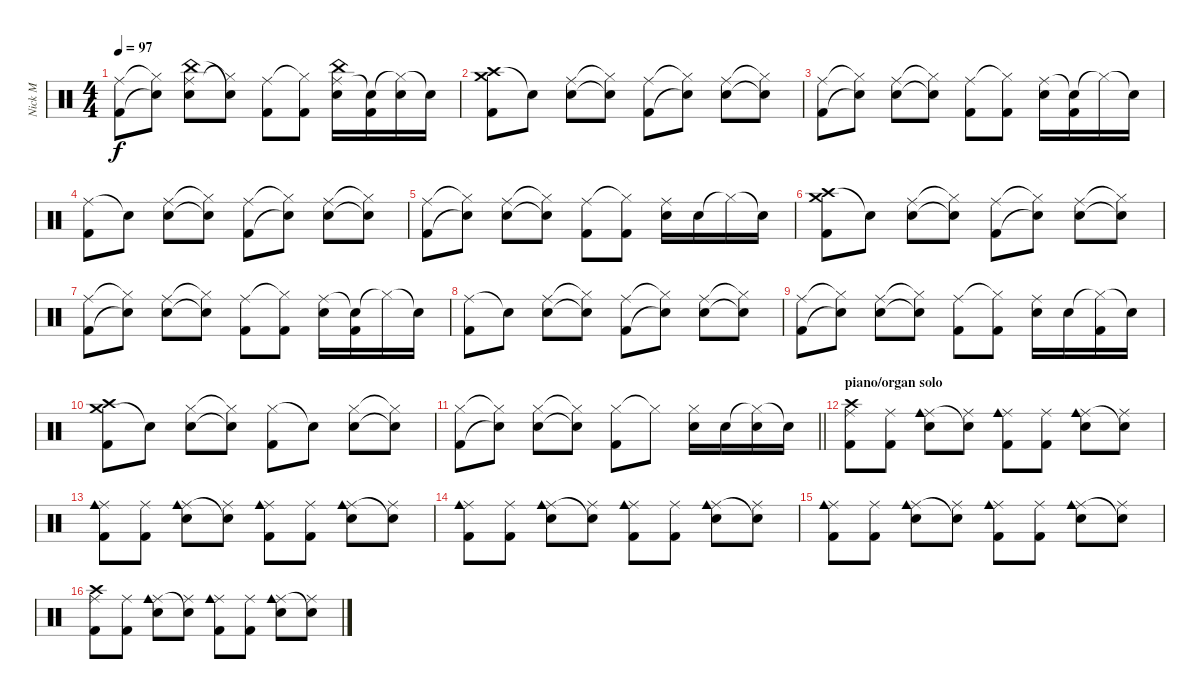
\track ("Nick M" "Nick M") {instrument percussion}
\staff {score}
\articulation defaults
\ts (4 4)
\tempo 97
\clef neutral
\ks c
("Ride (middle)" "Kick (hit) 2").8{dy f} ("Hi-Hat (closed)"{t} "Snare (hit)"{t}).8 ("Ride (middle)" "China (hit)" "Snare (hit) 2").8 ("Hi-Hat (closed)"{t} "Snare (hit)"{t}).8 ("Ride (middle)" "Kick (hit) 2").8 ("Hi-Hat (closed)"{t} "Kick (hit) 2").8 ("Ride (middle)" "China (hit)" "Snare (hit) 2").16 ("Snare (hit)"{t} "Kick (hit) 2").16 ("Hi-Hat (closed)"{t} "Snare (hit) 2").16 "Snare (hit)"{t}.16 |
("Crash high (hit)" "Crash medium (hit)" "Kick (hit) 2").8 "Snare (hit)"{t}.8 ("Ride (middle)" "Snare (hit) 2").8 ("Hi-Hat (closed)"{t} "Snare (hit)"{t}).8 ("Ride (middle)" "Kick (hit) 2").8 ("Hi-Hat (closed)"{t} "Snare (hit)"{t}).8 ("Ride (middle)" "Snare (hit) 2").8 ("Hi-Hat (closed)"{t} "Snare (hit)"{t}).8 |
("Ride (middle)" "Kick (hit) 2").8 ("Hi-Hat (closed)"{t} "Snare (hit)"{t}).8 ("Ride (middle)" "Snare (hit) 2").8 ("Hi-Hat (closed)"{t} "Snare (hit)"{t}).8 ("Ride (middle)" "Kick (hit) 2").8 ("Hi-Hat (closed)"{t} "Kick (hit) 2").8 ("Ride (middle)" "Snare (hit) 2").16 ("Snare (hit)"{t} "Kick (hit) 2").16 "Hi-Hat (closed)"{t}.16 "Snare (hit)"{t}.16 |
("Ride (middle)" "Kick (hit) 2").8 "Snare (hit)"{t}.8 ("Ride (middle)" "Snare (hit) 2").8 ("Hi-Hat (closed)"{t} "Snare (hit)"{t}).8 ("Ride (middle)" "Kick (hit) 2").8 ("Hi-Hat (closed)"{t} "Snare (hit)"{t}).8 ("Ride (middle)" "Snare (hit) 2").8 ("Hi-Hat (closed)"{t} "Snare (hit)"{t}).8 |
("Ride (middle)" "Kick (hit) 2").8 ("Hi-Hat (closed)"{t} "Snare (hit)"{t}).8 ("Ride (middle)" "Snare (hit) 2").8 ("Hi-Hat (closed)"{t} "Snare (hit)"{t}).8 ("Ride (middle)" "Kick (hit) 2").8 ("Hi-Hat (closed)"{t} "Kick (hit) 2").8 ("Ride (middle)" "Snare (hit) 2").16 "Snare (hit) 2".16 "Hi-Hat (closed)"{t}.16 "Snare (hit)"{t}.16 |
("Crash high (hit)" "Crash medium (hit)" "Kick (hit) 2").8 "Snare (hit)"{t}.8 ("Ride (middle)" "Snare (hit) 2").8 ("Hi-Hat (closed)"{t} "Snare (hit)"{t}).8 ("Ride (middle)" "Kick (hit) 2").8 ("Hi-Hat (closed)"{t} "Snare (hit)"{t}).8 ("Ride (middle)" "Snare (hit) 2").8 ("Hi-Hat (closed)"{t} "Snare (hit)"{t}).8 |
("Ride (middle)" "Kick (hit) 2").8 ("Hi-Hat (closed)"{t} "Snare (hit)"{t}).8 ("Ride (middle)" "Snare (hit) 2").8 ("Hi-Hat (closed)"{t} "Snare (hit)"{t}).8 ("Ride (middle)" "Kick (hit) 2").8 ("Hi-Hat (closed)"{t} "Kick (hit) 2").8 ("Ride (middle)" "Snare (hit) 2").16 ("Snare (hit)"{t} "Kick (hit) 2").16 "Hi-Hat (closed)"{t}.16 "Snare (hit)"{t}.16 |
("Ride (middle)" "Kick (hit) 2").8 "Snare (hit)"{t}.8 ("Ride (middle)" "Snare (hit) 2").8 ("Hi-Hat (closed)"{t} "Snare (hit)"{t}).8 ("Ride (middle)" "Kick (hit) 2").8 ("Hi-Hat (closed)"{t} "Snare (hit)"{t}).8 ("Ride (middle)" "Snare (hit) 2").8 ("Hi-Hat (closed)"{t} "Snare (hit)"{t}).8 |
("Ride (middle)" "Kick (hit) 2").8 ("Hi-Hat (closed)"{t} "Snare (hit)"{t}).8 ("Ride (middle)" "Snare (hit) 2").8 ("Hi-Hat (closed)"{t} "Snare (hit)"{t}).8 ("Ride (middle)" "Kick (hit) 2").8 ("Hi-Hat (closed)"{t} "Kick (hit) 2").8 ("Ride (middle)" "Snare (hit) 2").16 "Snare (hit) 2".16 ("Hi-Hat (closed)"{t} "Kick (hit) 2").16 "Snare (hit)"{t}.16 |
("Crash medium (hit)" "Crash high (hit)" "Kick (hit) 2").8 "Snare (hit)"{t}.8 ("Hi-Hat (closed)" "Snare (hit) 2").8 ("Hi-Hat (closed)"{t} "Snare (hit)"{t}).8 ("Hi-Hat (closed)" "Kick (hit) 2").8 "Snare (hit)"{t}.8 ("Hi-Hat (closed)" "Snare (hit) 2").8 ("Hi-Hat (closed)"{t} "Snare (hit)"{t}).8 |
\barLineRight lightlight
("Hi-Hat (closed)" "Kick (hit) 2").8 ("Hi-Hat (closed)"{t} "Snare (hit)"{t}).8 ("Hi-Hat (closed)" "Snare (hit) 2").8 ("Hi-Hat (closed)"{t} "Snare (hit)"{t}).8 ("Hi-Hat (closed)" "Kick (hit) 2").8 "Hi-Hat (closed)"{t}.8 ("Hi-Hat (closed)" "Snare (hit) 2").16 "Snare (hit) 2".16 ("Hi-Hat (closed)"{t} "Snare (hit) 2").16 "Snare (hit)"{t}.16 |
\section ("" "piano/organ solo")
("Ride (middle)" "Crash high (hit)" "Kick (hit) 2").8 ("Ride (middle)" "Kick (hit) 2").8 ("Ride (middle)" "Cowbell medium (hit)" "Snare (hit) 2").8 ("Ride (middle)" "Snare (hit)"{t}).8 ("Ride (middle)" "Cowbell medium (hit)" "Kick (hit) 2").8 ("Ride (middle)" "Kick (hit) 2").8 ("Ride (middle)" "Cowbell medium (hit)" "Snare (hit) 2").8 ("Ride (middle)" "Snare (hit)"{t}).8 |
("Ride (middle)" "Cowbell medium (hit)" "Kick (hit) 2").8 ("Ride (middle)" "Kick (hit) 2").8 ("Ride (middle)" "Cowbell medium (hit)" "Snare (hit) 2").8 ("Ride (middle)" "Snare (hit)"{t}).8 ("Ride (middle)" "Cowbell medium (hit)" "Kick (hit) 2").8 ("Ride (middle)" "Kick (hit) 2").8 ("Ride (middle)" "Cowbell medium (hit)" "Snare (hit) 2").8 ("Ride (middle)" "Snare (hit)"{t}).8 |
("Ride (middle)" "Cowbell medium (hit)" "Kick (hit) 2").8 ("Ride (middle)" "Kick (hit) 2").8 ("Ride (middle)" "Cowbell medium (hit)" "Snare (hit) 2").8 ("Ride (middle)" "Snare (hit)"{t}).8 ("Ride (middle)" "Cowbell medium (hit)" "Kick (hit) 2").8 ("Ride (middle)" "Kick (hit) 2").8 ("Ride (middle)" "Cowbell medium (hit)" "Snare (hit) 2").8 ("Ride (middle)" "Snare (hit)"{t}).8 |
("Ride (middle)" "Cowbell medium (hit)" "Kick (hit) 2").8 ("Ride (middle)" "Kick (hit) 2").8 ("Ride (middle)" "Cowbell medium (hit)" "Snare (hit) 2").8 ("Ride (middle)" "Snare (hit)"{t}).8 ("Ride (middle)" "Cowbell medium (hit)" "Kick (hit) 2").8 ("Ride (middle)" "Kick (hit) 2").8 ("Ride (middle)" "Cowbell medium (hit)" "Snare (hit) 2").8 ("Ride (middle)" "Snare (hit)"{t}).8 |
("Ride (middle)" "Crash high (hit)" "Kick (hit) 2").8 ("Ride (middle)" "Kick (hit) 2").8 ("Ride (middle)" "Cowbell medium (hit)" "Snare (hit) 2").8 ("Ride (middle)" "Snare (hit)"{t}).8 ("Ride (middle)" "Cowbell medium (hit)" "Kick (hit) 2").8 ("Ride (middle)" "Kick (hit) 2").8 ("Ride (middle)" "Cowbell medium (hit)" "Snare (hit) 2").8 ("Ride (middle)" "Snare (hit)"{t}).8
